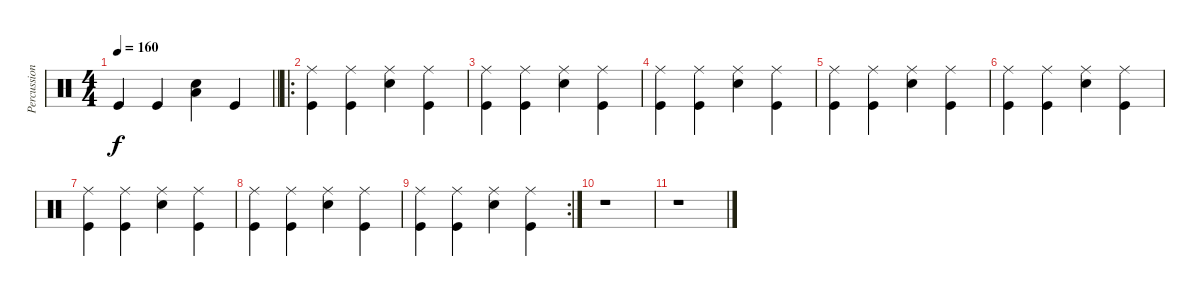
\track ("Percussion" "Percussion") {instrument percussion}
\staff {score}
\articulation defaults
\ts (4 4)
\tempo 160
\clef neutral
\barLineRight lightlight
\ks c "Kick (hit)".4{dy f} "Kick (hit)".4
("Low Tom (hit)" "Snare (hit) 2").4 "Kick (hit)".4 |
\ro
("Kick (hit)" "Ride (middle)").4 ("Kick (hit)" "Ride (middle)").4 ("Ride (middle)" "Snare (hit) 2").4 ("Kick (hit)" "Ride (middle)").4 |
("Kick (hit)" "Ride (middle)").4 ("Kick (hit)" "Ride (middle)").4 ("Ride (middle)" "Snare (hit) 2").4 ("Kick (hit)" "Ride (middle)").4 |
("Kick (hit)" "Ride (middle)").4 ("Kick (hit)" "Ride (middle)").4 ("Ride (middle)" "Snare (hit) 2").4 ("Kick (hit)" "Ride (middle)").4 |
("Kick (hit)" "Ride (middle)").4 ("Kick (hit)" "Ride (middle)").4 ("Ride (middle)" "Snare (hit) 2").4 ("Kick (hit)" "Ride (middle)").4 |
("Kick (hit)" "Ride (middle)").4 ("Kick (hit)" "Ride (middle)").4 ("Ride (middle)" "Snare (hit) 2").4 ("Kick (hit)" "Ride (middle)").4 |
("Kick (hit)" "Ride (middle)").4 ("Kick (hit)" "Ride (middle)").4 ("Ride (middle)" "Snare (hit) 2").4 ("Kick (hit)" "Ride (middle)").4 |
("Kick (hit)" "Ride (middle)").4 ("Kick (hit)" "Ride (middle)").4 ("Ride (middle)" "Snare (hit) 2").4 ("Kick (hit)" "Ride (middle)").4 |
\rc 2
("Kick (hit)" "Ride (middle)").4 ("Kick (hit)" "Ride (middle)").4 ("Ride (middle)" "Snare (hit) 2").4 ("Kick (hit)" "Ride (middle)").4 |
r.1 |
r.1
